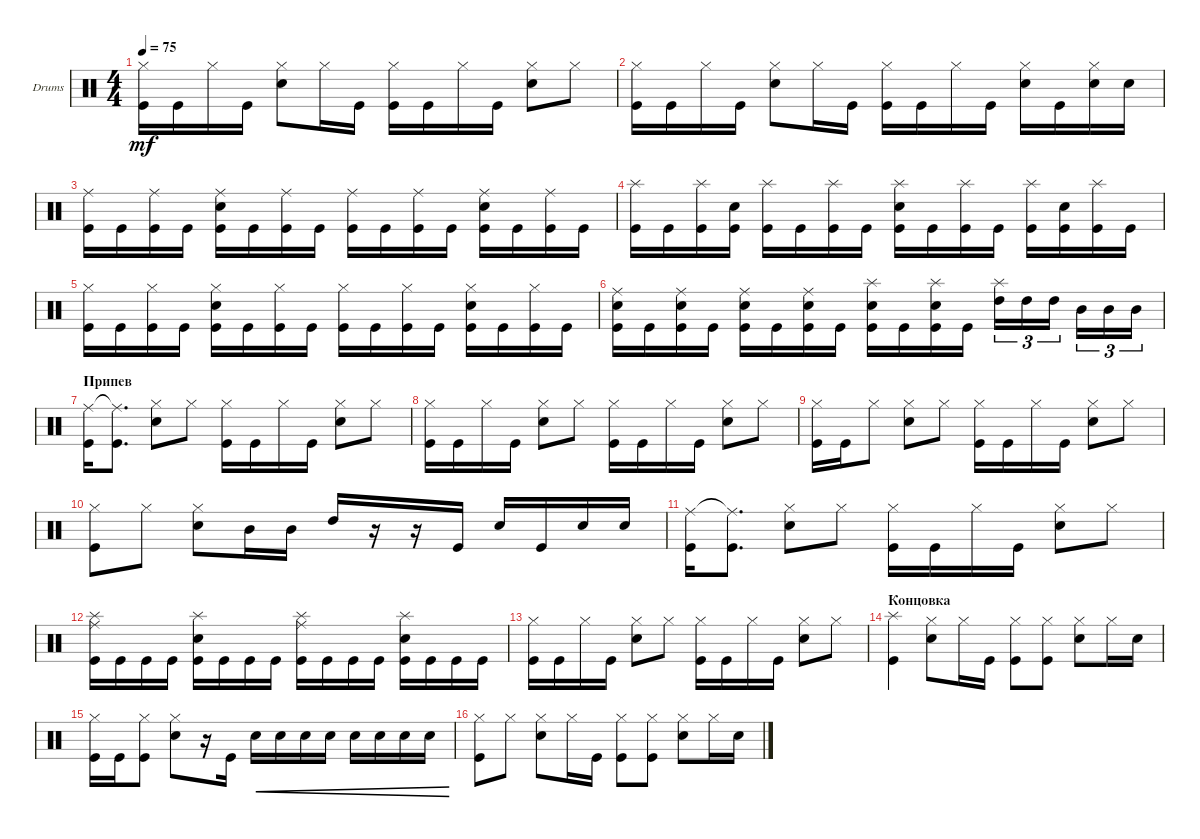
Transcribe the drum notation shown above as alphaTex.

\defaultSystemsLayout 4
\bracketExtendMode groupsimilarinstruments
\firstSystemTrackNameOrientation horizontal
\otherSystemsTrackNameOrientation horizontal
\track ("Барабаны" "Drums") {solo instrument percussion}
\staff {score}
\articulation defaults
\ts (4 4)
\tempo 75
\clef neutral
\ks c
("Kick (hit)" "Hi-Hat (closed)").16{dy mf} "Kick (hit)".16 "Hi-Hat (closed)".16 "Kick (hit)".16 ("Snare (hit) 2" "Hi-Hat (closed)").8 "Hi-Hat (closed)".16 "Kick (hit)".16 ("Kick (hit)" "Hi-Hat (closed)").16 "Kick (hit)".16 "Hi-Hat (closed)".16 "Kick (hit)".16 ("Snare (hit) 2" "Hi-Hat (closed)").8 "Hi-Hat (closed)".8 |
("Kick (hit)" "Hi-Hat (closed)").16 "Kick (hit)".16 "Hi-Hat (closed)".16 "Kick (hit)".16 ("Snare (hit) 2" "Hi-Hat (closed)").8 "Hi-Hat (closed)".16 "Kick (hit)".16 ("Kick (hit)" "Hi-Hat (closed)").16 "Kick (hit)".16 "Hi-Hat (closed)".16 "Kick (hit)".16 ("Snare (hit) 2" "Hi-Hat (closed)").16 "Kick (hit)".16 ("Hi-Hat (closed)" "Snare (hit) 2").16 "Snare (hit) 2".16 |
("Kick (hit)" "Ride (middle)").16 "Kick (hit)".16 ("Kick (hit)" "Ride (middle)").16 "Kick (hit)".16 ("Kick (hit)" "Snare (hit) 2" "Ride (middle)").16 "Kick (hit)".16 ("Kick (hit)" "Ride (middle)").16 "Kick (hit)".16 ("Kick (hit)" "Ride (middle)").16 "Kick (hit)".16 ("Kick (hit)" "Ride (middle)").16 "Kick (hit)".16 ("Kick (hit)" "Snare (hit) 2" "Ride (middle)").16 "Kick (hit)".16 ("Kick (hit)" "Ride (middle)").16 "Kick (hit)".16 |
("Kick (hit)" "Splash (hit)").16 "Kick (hit)".16 ("Kick (hit)" "Splash (hit)").16 ("Kick (hit)" "Snare (hit) 2").16 ("Kick (hit)" "Splash (hit)").16 "Kick (hit)".16 ("Kick (hit)" "Splash (hit)").16 "Kick (hit)".16 ("Kick (hit)" "Snare (hit) 2" "Splash (hit)").16 "Kick (hit)".16 ("Kick (hit)" "Splash (hit)").16 "Kick (hit)".16 ("Kick (hit)" "Splash (hit)").16 ("Kick (hit)" "Snare (hit) 2").16 ("Kick (hit)" "Splash (hit)").16 "Kick (hit)".16 |
("Kick (hit)" "Hi-Hat (closed)").16 "Kick (hit)".16 ("Kick (hit)" "Hi-Hat (closed)").16 "Kick (hit)".16 ("Kick (hit)" "Snare (hit) 2" "Hi-Hat (closed)").16 "Kick (hit)".16 ("Kick (hit)" "Hi-Hat (closed)").16 "Kick (hit)".16 ("Kick (hit)" "Hi-Hat (closed)").16 "Kick (hit)".16 ("Kick (hit)" "Hi-Hat (closed)").16 "Kick (hit)".16 ("Kick (hit)" "Snare (hit) 2" "Hi-Hat (closed)").16 "Kick (hit)".16 ("Kick (hit)" "Hi-Hat (closed)").16 "Kick (hit)".16 |
("Kick (hit)" "Snare (hit) 2" "Ride (middle)").16 "Kick (hit)".16 ("Kick (hit)" "Snare (hit) 2" "Ride (middle)").16 "Kick (hit)".16 ("Kick (hit)" "Snare (hit) 2" "Ride (middle)").16 "Kick (hit)".16 ("Kick (hit)" "Snare (hit) 2" "Ride (middle)").16 "Kick (hit)".16 ("Kick (hit)" "Snare (hit) 2" "Splash (hit)").16 "Kick (hit)".16 ("Kick (hit)" "Snare (hit) 2" "Splash (hit)").16 "Kick (hit)".16 ("High Tom (hit)" "Splash (hit)").16{tu (3 2)} "High Tom (hit)".16{tu (3 2)} "High Tom (hit)".16{tu (3 2)} "Mid Tom (hit)".16{tu (3 2)} "Mid Tom (hit)".16{tu (3 2)} "Mid Tom (hit)".16{tu (3 2)} |
\section ("" "Припев")
("Kick (hit)" "Ride (middle)").16 ("Kick (hit)" "Ride (middle)"{t}).8{d} ("Snare (hit) 2" "Hi-Hat (closed)").8 "Hi-Hat (closed)".8 ("Kick (hit)" "Hi-Hat (closed)").16 "Kick (hit)".16 "Hi-Hat (closed)".16 "Kick (hit)".16 ("Snare (hit) 2" "Hi-Hat (closed)").8 "Hi-Hat (closed)".8 |
("Kick (hit)" "Hi-Hat (closed)").16 "Kick (hit)".16 "Hi-Hat (closed)".16 "Kick (hit)".16 ("Snare (hit) 2" "Hi-Hat (closed)").8 "Hi-Hat (closed)".8 ("Kick (hit)" "Hi-Hat (closed)").16 "Kick (hit)".16 "Hi-Hat (closed)".16 "Kick (hit)".16 ("Snare (hit) 2" "Hi-Hat (closed)").8 "Hi-Hat (closed)".8 |
("Kick (hit)" "Hi-Hat (closed)").16 "Kick (hit)".16 "Hi-Hat (closed)".8 ("Snare (hit) 2" "Hi-Hat (closed)").8 "Hi-Hat (closed)".8 ("Kick (hit)" "Hi-Hat (closed)").16 "Kick (hit)".16 "Hi-Hat (closed)".16 "Kick (hit)".16 ("Snare (hit) 2" "Hi-Hat (closed)").8 "Hi-Hat (closed)".8 |
("Kick (hit)" "Hi-Hat (closed)").8 "Hi-Hat (closed)".8 ("Snare (hit) 2" "Hi-Hat (closed)").8 "Mid Tom (hit)".16 "Mid Tom (hit)".16 "High Tom (hit)".16 r.16 r.16 "Kick (hit)".16 "Snare (hit) 2".16 "Kick (hit)".16 "Snare (hit) 2".16 "Snare (hit) 2".16 |
("Kick (hit)" "Ride (middle)").16 ("Kick (hit)" "Ride (middle)"{t}).8{d} ("Snare (hit) 2" "Hi-Hat (closed)").8 "Hi-Hat (closed)".8 ("Kick (hit)" "Hi-Hat (closed)").16 "Kick (hit)".16 "Hi-Hat (closed)".16 "Kick (hit)".16 ("Snare (hit) 2" "Hi-Hat (closed)").8 "Hi-Hat (closed)".8 |
("Kick (hit)" "Ride (middle)" "Splash (hit)").16 "Kick (hit)".16 "Kick (hit)".16 "Kick (hit)".16 ("Kick (hit)" "Snare (hit) 2" "Splash (hit)").16 "Kick (hit)".16 "Kick (hit)".16 "Kick (hit)".16 ("Kick (hit)" "Splash (hit)" "Ride (middle)").16 "Kick (hit)".16 "Kick (hit)".16 "Kick (hit)".16 ("Kick (hit)" "Snare (hit) 2" "Splash (hit)").16 "Kick (hit)".16 "Kick (hit)".16 "Kick (hit)".16 |
("Kick (hit)" "Hi-Hat (closed)").16 "Kick (hit)".16 "Hi-Hat (closed)".16 "Kick (hit)".16 ("Snare (hit) 2" "Hi-Hat (closed)").8 "Hi-Hat (closed)".8 ("Kick (hit)" "Hi-Hat (closed)").16 "Kick (hit)".16 "Hi-Hat (closed)".16 "Kick (hit)".16 ("Snare (hit) 2" "Hi-Hat (closed)").8 "Hi-Hat (closed)".8 |
\section ("" "Концовка")
("Kick (hit)" "Splash (hit)").4 ("Snare (hit) 2" "Hi-Hat (closed)").8 "Hi-Hat (closed)".16 "Kick (hit)".16 ("Kick (hit)" "Hi-Hat (closed)").8 ("Kick (hit)" "Hi-Hat (closed)").8 ("Snare (hit) 2" "Hi-Hat (closed)").8 "Hi-Hat (closed)".16 "Snare (hit) 2".16 |
("Kick (hit)" "Hi-Hat (closed)").16 "Kick (hit)".16 ("Kick (hit)" "Hi-Hat (closed)").8 ("Snare (hit) 2" "Hi-Hat (closed)").8 r.16 "Kick (hit)".16 "Snare (hit) 2".16{cre} "Snare (hit) 2".16{cre} "Snare (hit) 2".16{cre} "Snare (hit) 2".16{cre} "Snare (hit) 2".16{cre} "Snare (hit) 2".16{cre} "Snare (hit) 2".16{cre} "Snare (hit) 2".16{cre} |
("Kick (hit)" "Hi-Hat (closed)").8 "Hi-Hat (closed)".8 ("Snare (hit) 2" "Hi-Hat (closed)").8 "Hi-Hat (closed)".16 "Kick (hit)".16 ("Kick (hit)" "Hi-Hat (closed)").8 ("Kick (hit)" "Hi-Hat (closed)").8 ("Snare (hit) 2" "Hi-Hat (closed)").8 "Hi-Hat (closed)".16 "Snare (hit) 2".16
